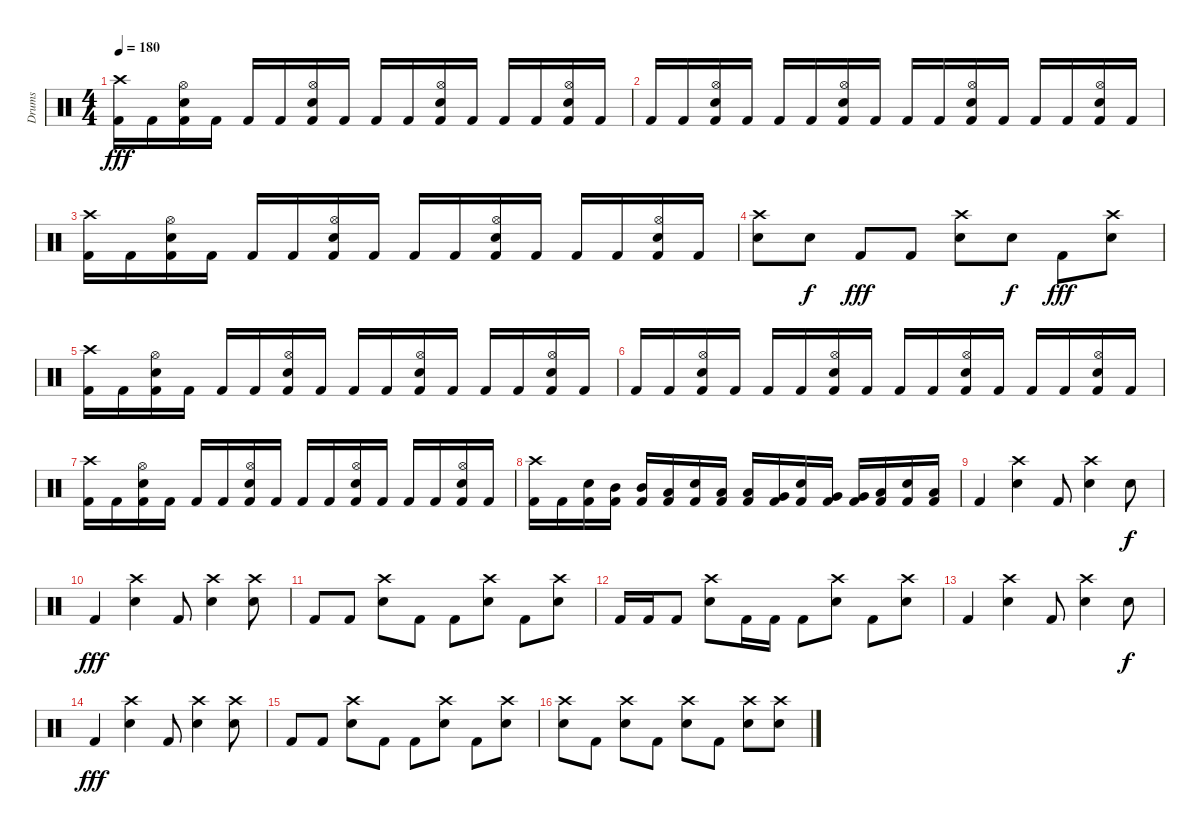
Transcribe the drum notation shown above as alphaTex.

\track ("Drums" "Drums") {instrument percussion}
\staff {score}
\articulation defaults
\ts (4 4)
\tempo 180
\clef neutral
\ks c
("Crash high (hit)" "Kick (hit) 2").16{dy fff} "Kick (hit) 2".16 ("Hi-Hat (open)" "Snare (hit) 2" "Kick (hit) 2").16 "Kick (hit) 2".16 "Kick (hit) 2".16 "Kick (hit) 2".16 ("Hi-Hat (open)" "Snare (hit) 2" "Kick (hit) 2").16 "Kick (hit) 2".16 "Kick (hit) 2".16 "Kick (hit) 2".16 ("Hi-Hat (open)" "Snare (hit) 2" "Kick (hit) 2").16 "Kick (hit) 2".16 "Kick (hit) 2".16 "Kick (hit) 2".16 ("Hi-Hat (open)" "Snare (hit) 2" "Kick (hit) 2").16 "Kick (hit) 2".16 |
"Kick (hit) 2".16 "Kick (hit) 2".16 ("Hi-Hat (open)" "Snare (hit) 2" "Kick (hit) 2").16 "Kick (hit) 2".16 "Kick (hit) 2".16 "Kick (hit) 2".16 ("Hi-Hat (open)" "Snare (hit) 2" "Kick (hit) 2").16 "Kick (hit) 2".16 "Kick (hit) 2".16 "Kick (hit) 2".16 ("Hi-Hat (open)" "Snare (hit) 2" "Kick (hit) 2").16 "Kick (hit) 2".16 "Kick (hit) 2".16 "Kick (hit) 2".16 ("Hi-Hat (open)" "Snare (hit) 2" "Kick (hit) 2").16 "Kick (hit) 2".16 |
("Crash high (hit)" "Kick (hit) 2").16 "Kick (hit) 2".16 ("Hi-Hat (open)" "Snare (hit) 2" "Kick (hit) 2").16 "Kick (hit) 2".16 "Kick (hit) 2".16 "Kick (hit) 2".16 ("Hi-Hat (open)" "Snare (hit) 2" "Kick (hit) 2").16 "Kick (hit) 2".16 "Kick (hit) 2".16 "Kick (hit) 2".16 ("Hi-Hat (open)" "Snare (hit) 2" "Kick (hit) 2").16 "Kick (hit) 2".16 "Kick (hit) 2".16 "Kick (hit) 2".16 ("Hi-Hat (open)" "Snare (hit) 2" "Kick (hit) 2").16 "Kick (hit) 2".16 |
("Crash high (hit)" "Snare (hit) 2").8 "Snare (hit) 2".8{dy f} "Kick (hit) 2".8{dy fff} "Kick (hit) 2".8 ("Crash high (hit)" "Snare (hit) 2").8 "Snare (hit) 2".8{dy f} "Kick (hit) 2".8{dy fff} ("Crash high (hit)" "Snare (hit) 2").8 |
("Crash high (hit)" "Kick (hit) 2").16 "Kick (hit) 2".16 ("Hi-Hat (open)" "Snare (hit) 2" "Kick (hit) 2").16 "Kick (hit) 2".16 "Kick (hit) 2".16 "Kick (hit) 2".16 ("Hi-Hat (open)" "Snare (hit) 2" "Kick (hit) 2").16 "Kick (hit) 2".16 "Kick (hit) 2".16 "Kick (hit) 2".16 ("Hi-Hat (open)" "Snare (hit) 2" "Kick (hit) 2").16 "Kick (hit) 2".16 "Kick (hit) 2".16 "Kick (hit) 2".16 ("Hi-Hat (open)" "Snare (hit) 2" "Kick (hit) 2").16 "Kick (hit) 2".16 |
"Kick (hit) 2".16 "Kick (hit) 2".16 ("Hi-Hat (open)" "Snare (hit) 2" "Kick (hit) 2").16 "Kick (hit) 2".16 "Kick (hit) 2".16 "Kick (hit) 2".16 ("Hi-Hat (open)" "Snare (hit) 2" "Kick (hit) 2").16 "Kick (hit) 2".16 "Kick (hit) 2".16 "Kick (hit) 2".16 ("Hi-Hat (open)" "Snare (hit) 2" "Kick (hit) 2").16 "Kick (hit) 2".16 "Kick (hit) 2".16 "Kick (hit) 2".16 ("Hi-Hat (open)" "Snare (hit) 2" "Kick (hit) 2").16 "Kick (hit) 2".16 |
("Crash high (hit)" "Kick (hit) 2").16 "Kick (hit) 2".16 ("Hi-Hat (open)" "Snare (hit) 2" "Kick (hit) 2").16 "Kick (hit) 2".16 "Kick (hit) 2".16 "Kick (hit) 2".16 ("Hi-Hat (open)" "Snare (hit) 2" "Kick (hit) 2").16 "Kick (hit) 2".16 "Kick (hit) 2".16 "Kick (hit) 2".16 ("Hi-Hat (open)" "Snare (hit) 2" "Kick (hit) 2").16 "Kick (hit) 2".16 "Kick (hit) 2".16 "Kick (hit) 2".16 ("Hi-Hat (open)" "Snare (hit) 2" "Kick (hit) 2").16 "Kick (hit) 2".16 |
("Crash high (hit)" "Kick (hit) 2").16 "Kick (hit) 2".16 ("Snare (hit) 2" "Kick (hit) 2").16 ("Mid Tom (hit)" "Kick (hit) 2").16 ("Mid Tom (hit)" "Kick (hit) 2").16 ("Low Tom (hit)" "Kick (hit) 2").16 ("Snare (hit) 2" "Kick (hit) 2").16 ("Low Tom (hit)" "Kick (hit) 2").16 ("Low Tom (hit)" "Kick (hit) 2").16 ("Very Low Tom (hit)" "Kick (hit) 2").16 ("Snare (hit) 2" "Kick (hit) 2").16 ("Very Low Tom (hit)" "Kick (hit) 2").16 ("Very Low Tom (hit)" "Kick (hit) 2").16 ("Low Floor Tom (hit)" "Kick (hit) 2").16 ("Snare (hit) 2" "Kick (hit) 2").16 ("Low Floor Tom (hit)" "Kick (hit) 2").16 |
"Kick (hit) 2".4 ("Crash high (hit)" "Snare (hit) 2").4 "Kick (hit) 2".8 ("Crash high (hit)" "Snare (hit) 2").4 "Snare (hit) 2".8{dy f} |
"Kick (hit) 2".4{dy fff} ("Crash high (hit)" "Snare (hit) 2").4 "Kick (hit) 2".8 ("Crash high (hit)" "Snare (hit) 2").4 ("Crash high (hit)" "Snare (hit) 2").8 |
"Kick (hit) 2".8 "Kick (hit) 2".8 ("Crash high (hit)" "Snare (hit) 2").8 "Kick (hit) 2".8 "Kick (hit) 2".8 ("Crash high (hit)" "Snare (hit) 2").8 "Kick (hit) 2".8 ("Crash high (hit)" "Snare (hit) 2").8 |
"Kick (hit) 2".16 "Kick (hit) 2".16 "Kick (hit) 2".8 ("Crash high (hit)" "Snare (hit) 2").8 "Kick (hit) 2".16 "Kick (hit) 2".16 "Kick (hit) 2".8 ("Crash high (hit)" "Snare (hit) 2").8 "Kick (hit) 2".8 ("Crash high (hit)" "Snare (hit) 2").8 |
"Kick (hit) 2".4 ("Crash high (hit)" "Snare (hit) 2").4 "Kick (hit) 2".8 ("Crash high (hit)" "Snare (hit) 2").4 "Snare (hit) 2".8{dy f} |
"Kick (hit) 2".4{dy fff} ("Crash high (hit)" "Snare (hit) 2").4 "Kick (hit) 2".8 ("Crash high (hit)" "Snare (hit) 2").4 ("Crash high (hit)" "Snare (hit) 2").8 |
"Kick (hit) 2".8 "Kick (hit) 2".8 ("Crash high (hit)" "Snare (hit) 2").8 "Kick (hit) 2".8 "Kick (hit) 2".8 ("Crash high (hit)" "Snare (hit) 2").8 "Kick (hit) 2".8 ("Crash high (hit)" "Snare (hit) 2").8 |
("Crash high (hit)" "Snare (hit) 2").8 "Kick (hit) 2".8 ("Crash high (hit)" "Snare (hit) 2").8 "Kick (hit) 2".8 ("Crash high (hit)" "Snare (hit) 2").8 "Kick (hit) 2".8 ("Crash high (hit)" "Snare (hit) 2").8 ("Crash high (hit)" "Snare (hit) 2").8
